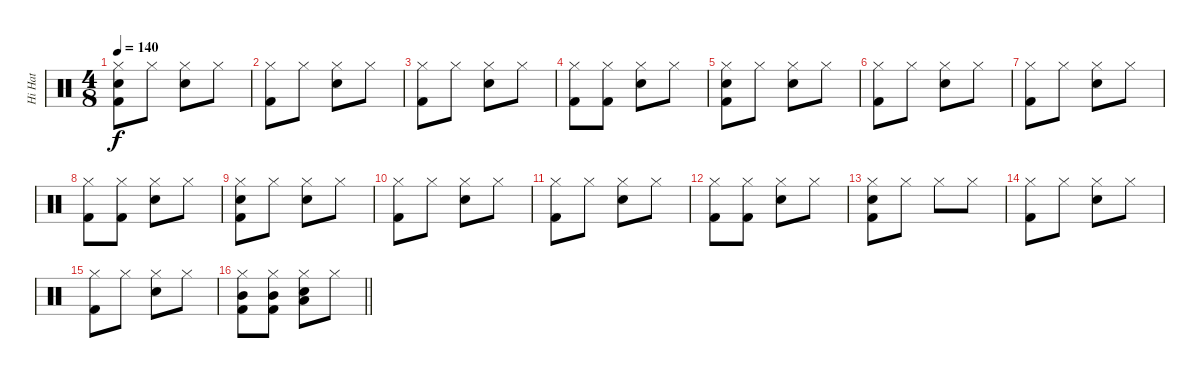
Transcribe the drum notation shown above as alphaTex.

\track ("Hi Hat" "Hi Hat") {instrument percussion}
\staff {score}
\articulation defaults
\ts (4 8)
\tempo 140
\clef neutral
\ks c
("Hi-Hat (closed)" "Kick (hit) 2" "Snare (hit) 2").8{dy f} "Hi-Hat (closed)".8 ("Hi-Hat (closed)" "Snare (hit) 2").8 "Hi-Hat (closed)".8 |
("Hi-Hat (closed)" "Kick (hit) 2").8 "Hi-Hat (closed)".8 ("Hi-Hat (closed)" "Snare (hit) 2").8 "Hi-Hat (closed)".8 |
("Hi-Hat (closed)" "Kick (hit) 2").8 "Hi-Hat (closed)".8 ("Hi-Hat (closed)" "Snare (hit) 2").8 "Hi-Hat (closed)".8 |
("Hi-Hat (closed)" "Kick (hit) 2").8 ("Hi-Hat (closed)" "Kick (hit) 2").8 ("Hi-Hat (closed)" "Snare (hit) 2").8 "Hi-Hat (closed)".8 |
("Hi-Hat (closed)" "Kick (hit) 2" "Snare (hit) 2").8 "Hi-Hat (closed)".8 ("Hi-Hat (closed)" "Snare (hit) 2").8 "Hi-Hat (closed)".8 |
("Hi-Hat (closed)" "Kick (hit) 2").8 "Hi-Hat (closed)".8 ("Hi-Hat (closed)" "Snare (hit) 2").8 "Hi-Hat (closed)".8 |
("Hi-Hat (closed)" "Kick (hit) 2").8 "Hi-Hat (closed)".8 ("Hi-Hat (closed)" "Snare (hit) 2").8 "Hi-Hat (closed)".8 |
("Hi-Hat (closed)" "Kick (hit) 2").8 ("Hi-Hat (closed)" "Kick (hit) 2").8 ("Hi-Hat (closed)" "Snare (hit) 2").8 "Hi-Hat (closed)".8 |
("Hi-Hat (closed)" "Kick (hit) 2" "Snare (hit) 2").8 "Hi-Hat (closed)".8 ("Hi-Hat (closed)" "Snare (hit) 2").8 "Hi-Hat (closed)".8 |
("Hi-Hat (closed)" "Kick (hit) 2").8 "Hi-Hat (closed)".8 ("Hi-Hat (closed)" "Snare (hit) 2").8 "Hi-Hat (closed)".8 |
("Hi-Hat (closed)" "Kick (hit) 2").8 "Hi-Hat (closed)".8 ("Hi-Hat (closed)" "Snare (hit) 2").8 "Hi-Hat (closed)".8 |
("Hi-Hat (closed)" "Kick (hit) 2").8 ("Hi-Hat (closed)" "Kick (hit) 2").8 ("Hi-Hat (closed)" "Snare (hit) 2").8 "Hi-Hat (closed)".8 |
("Hi-Hat (closed)" "Kick (hit) 2" "Snare (hit) 2").8 "Hi-Hat (closed)".8 "Hi-Hat (closed)".8 "Hi-Hat (closed)".8 |
("Hi-Hat (closed)" "Kick (hit) 2").8 "Hi-Hat (closed)".8 ("Hi-Hat (closed)" "Snare (hit) 2").8 "Hi-Hat (closed)".8 |
("Hi-Hat (closed)" "Kick (hit) 2").8 "Hi-Hat (closed)".8 ("Hi-Hat (closed)" "Snare (hit) 2").8 "Hi-Hat (closed)".8 |
\barLineRight lightlight
("Hi-Hat (closed)" "Kick (hit) 2" "Mid Tom (hit)").8 ("Hi-Hat (closed)" "Kick (hit) 2" "Mid Tom (hit)").8 ("Hi-Hat (closed)" "Snare (hit) 2" "Low Tom (hit)").8 "Hi-Hat (closed)".8
